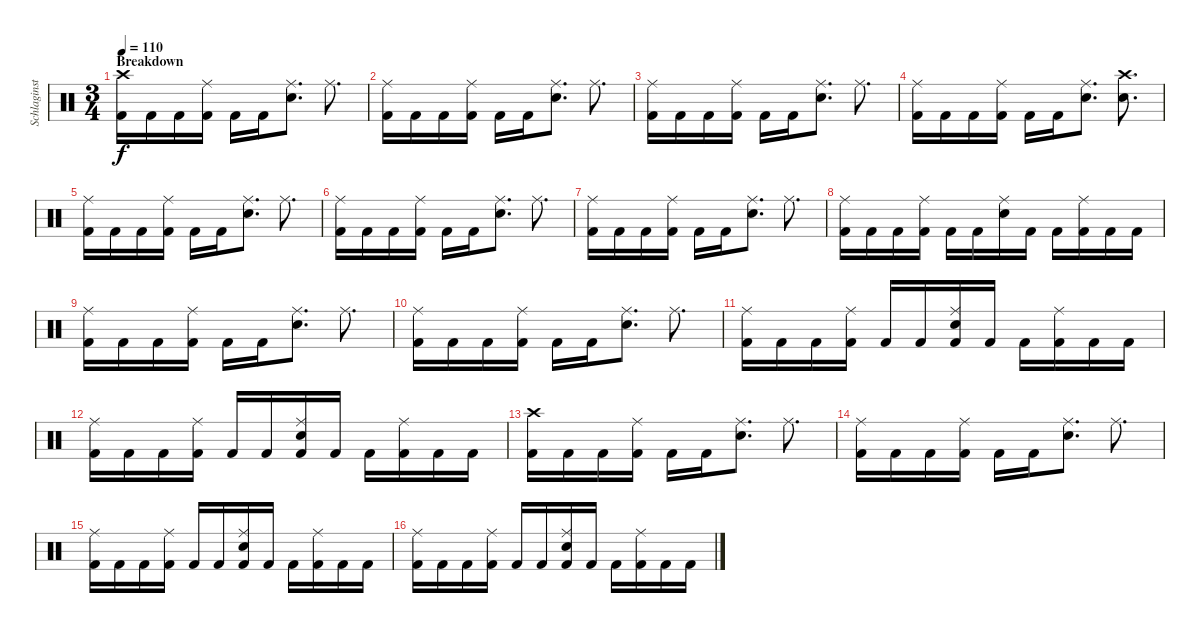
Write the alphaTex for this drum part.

\track ("Schlaginstrumente - Auswahl" "Schlaginst") {instrument percussion}
\staff {score}
\articulation defaults
\ts (3 4)
\section ("" "Breakdown")
\tempo 110
\clef neutral
\ks c
("Crash high (hit)" "Kick (hit) 2").16{dy f} "Kick (hit) 2".16 "Kick (hit) 2".16 ("Ride (middle)" "Kick (hit) 2").16 "Kick (hit) 2".16 "Kick (hit) 2".16 ("Ride (middle)" "Snare (hit) 2").8{d} "Ride (middle)".8{d} |
("Ride (middle)" "Kick (hit) 2").16 "Kick (hit) 2".16 "Kick (hit) 2".16 ("Ride (middle)" "Kick (hit) 2").16 "Kick (hit) 2".16 "Kick (hit) 2".16 ("Ride (middle)" "Snare (hit) 2").8{d} "Ride (middle)".8{d} |
("Ride (middle)" "Kick (hit) 2").16 "Kick (hit) 2".16 "Kick (hit) 2".16 ("Ride (middle)" "Kick (hit) 2").16 "Kick (hit) 2".16 "Kick (hit) 2".16 ("Ride (middle)" "Snare (hit) 2").8{d} "Ride (middle)".8{d} |
("Ride (middle)" "Kick (hit) 2").16 "Kick (hit) 2".16 "Kick (hit) 2".16 ("Ride (middle)" "Kick (hit) 2").16 "Kick (hit) 2".16 "Kick (hit) 2".16 ("Ride (middle)" "Snare (hit) 2").8{d} ("Crash high (hit)" "Snare (hit) 2").8{d} |
("Ride (middle)" "Kick (hit) 2").16 "Kick (hit) 2".16 "Kick (hit) 2".16 ("Ride (middle)" "Kick (hit) 2").16 "Kick (hit) 2".16 "Kick (hit) 2".16 ("Ride (middle)" "Snare (hit) 2").8{d} "Ride (middle)".8{d} |
("Ride (middle)" "Kick (hit) 2").16 "Kick (hit) 2".16 "Kick (hit) 2".16 ("Ride (middle)" "Kick (hit) 2").16 "Kick (hit) 2".16 "Kick (hit) 2".16 ("Ride (middle)" "Snare (hit) 2").8{d} "Ride (middle)".8{d} |
("Ride (middle)" "Kick (hit) 2").16 "Kick (hit) 2".16 "Kick (hit) 2".16 ("Ride (middle)" "Kick (hit) 2").16 "Kick (hit) 2".16 "Kick (hit) 2".16 ("Ride (middle)" "Snare (hit) 2").8{d} "Ride (middle)".8{d} |
("Ride (middle)" "Kick (hit) 2").16 "Kick (hit) 2".16 "Kick (hit) 2".16 ("Ride (middle)" "Kick (hit) 2").16 "Kick (hit) 2".16 "Kick (hit) 2".16 ("Ride (middle)" "Snare (hit) 2").16 "Kick (hit) 2".16 "Kick (hit) 2".16 ("Ride (middle)" "Kick (hit) 2").16 "Kick (hit) 2".16 "Kick (hit) 2".16 |
("Ride (middle)" "Kick (hit) 2").16 "Kick (hit) 2".16 "Kick (hit) 2".16 ("Ride (middle)" "Kick (hit) 2").16 "Kick (hit) 2".16 "Kick (hit) 2".16 ("Ride (middle)" "Snare (hit) 2").8{d} "Ride (middle)".8{d} |
("Ride (middle)" "Kick (hit) 2").16 "Kick (hit) 2".16 "Kick (hit) 2".16 ("Ride (middle)" "Kick (hit) 2").16 "Kick (hit) 2".16 "Kick (hit) 2".16 ("Ride (middle)" "Snare (hit) 2").8{d} "Ride (middle)".8{d} |
("Ride (middle)" "Kick (hit) 2").16 "Kick (hit) 2".16 "Kick (hit) 2".16 ("Ride (middle)" "Kick (hit) 2").16 "Kick (hit) 2".16 "Kick (hit) 2".16 ("Ride (middle)" "Snare (hit) 2" "Kick (hit) 2").16 "Kick (hit) 2".16 "Kick (hit) 2".16 ("Ride (middle)" "Kick (hit) 2").16 "Kick (hit) 2".16 "Kick (hit) 2".16 |
("Ride (middle)" "Kick (hit) 2").16 "Kick (hit) 2".16 "Kick (hit) 2".16 ("Ride (middle)" "Kick (hit) 2").16 "Kick (hit) 2".16 "Kick (hit) 2".16 ("Ride (middle)" "Snare (hit) 2" "Kick (hit) 2").16 "Kick (hit) 2".16 "Kick (hit) 2".16 ("Ride (middle)" "Kick (hit) 2").16 "Kick (hit) 2".16 "Kick (hit) 2".16 |
("Crash high (hit)" "Kick (hit) 2").16 "Kick (hit) 2".16 "Kick (hit) 2".16 ("Ride (middle)" "Kick (hit) 2").16 "Kick (hit) 2".16 "Kick (hit) 2".16 ("Ride (middle)" "Snare (hit) 2").8{d} "Ride (middle)".8{d} |
("Ride (middle)" "Kick (hit) 2").16 "Kick (hit) 2".16 "Kick (hit) 2".16 ("Ride (middle)" "Kick (hit) 2").16 "Kick (hit) 2".16 "Kick (hit) 2".16 ("Ride (middle)" "Snare (hit) 2").8{d} "Ride (middle)".8{d} |
("Ride (middle)" "Kick (hit) 2").16 "Kick (hit) 2".16 "Kick (hit) 2".16 ("Ride (middle)" "Kick (hit) 2").16 "Kick (hit) 2".16 "Kick (hit) 2".16 ("Ride (middle)" "Snare (hit) 2" "Kick (hit) 2").16 "Kick (hit) 2".16 "Kick (hit) 2".16 ("Ride (middle)" "Kick (hit) 2").16 "Kick (hit) 2".16 "Kick (hit) 2".16 |
("Ride (middle)" "Kick (hit) 2").16 "Kick (hit) 2".16 "Kick (hit) 2".16 ("Ride (middle)" "Kick (hit) 2").16 "Kick (hit) 2".16 "Kick (hit) 2".16 ("Ride (middle)" "Snare (hit) 2" "Kick (hit) 2").16 "Kick (hit) 2".16 "Kick (hit) 2".16 ("Ride (middle)" "Kick (hit) 2").16 "Kick (hit) 2".16 "Kick (hit) 2".16
